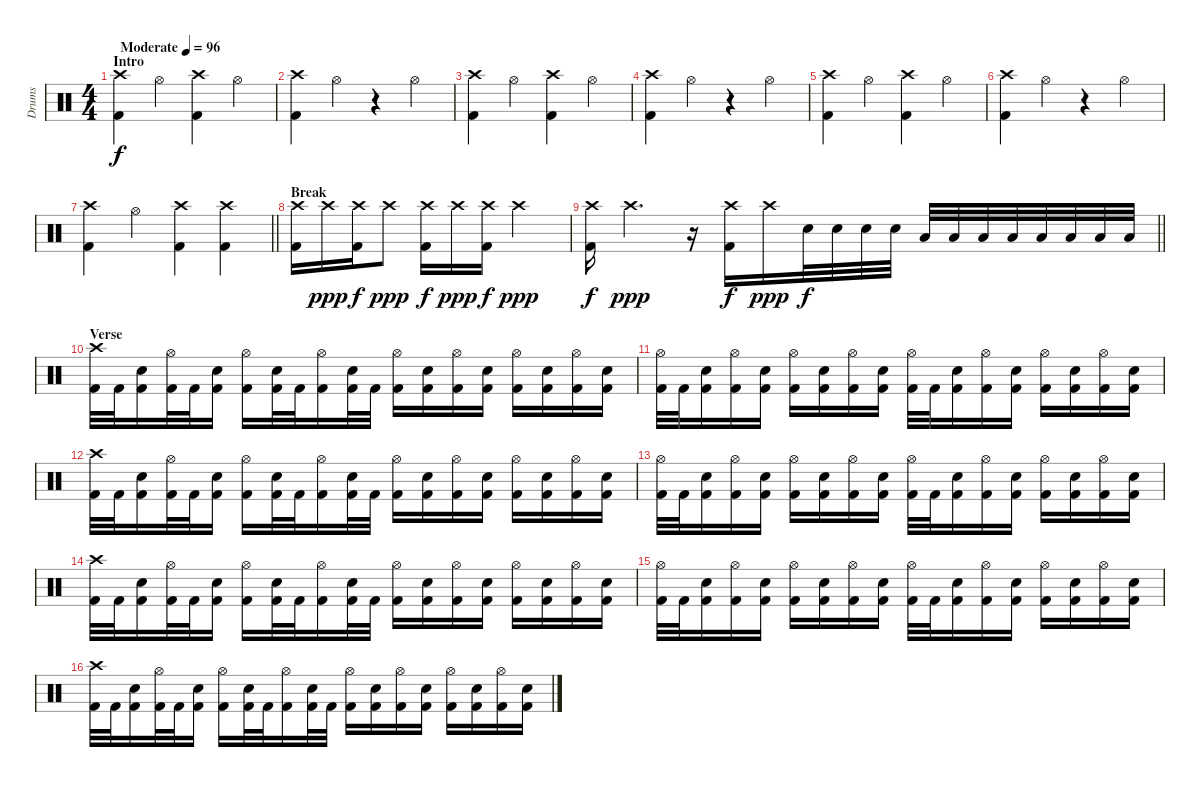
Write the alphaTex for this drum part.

\track ("Drums" "Drums") {instrument percussion}
\staff {score}
\articulation defaults
\ts (4 4)
\section ("" "Intro")
\tempo (96 "Moderate")
\clef neutral
\ks c
("Crash high (hit)" "Kick (hit) 2").4{dy f} "Hi-Hat (open)".4 ("Crash high (hit)" "Kick (hit) 2").4 "Hi-Hat (open)".4 |
("Crash high (hit)" "Kick (hit) 2").4 "Hi-Hat (open)".4 r.4 "Hi-Hat (open)".4 |
("Crash high (hit)" "Kick (hit) 2").4 "Hi-Hat (open)".4 ("Crash high (hit)" "Kick (hit) 2").4 "Hi-Hat (open)".4 |
("Crash high (hit)" "Kick (hit) 2").4 "Hi-Hat (open)".4 r.4 "Hi-Hat (open)".4 |
("Crash high (hit)" "Kick (hit) 2").4 "Hi-Hat (open)".4 ("Crash high (hit)" "Kick (hit) 2").4 "Hi-Hat (open)".4 |
("Crash high (hit)" "Kick (hit) 2").4 "Hi-Hat (open)".4 r.4 "Hi-Hat (open)".4 |
\barLineRight lightlight
("Crash high (hit)" "Kick (hit) 2").4 "Hi-Hat (open)".4 ("Crash high (hit)" "Kick (hit) 2").4 ("Crash high (hit)" "Kick (hit) 2").4 |
\section ("" "Break")
("Crash high (hit)" "Kick (hit) 2").16 "Crash high (hit)".16{dy ppp} ("Crash high (hit)" "Kick (hit) 2").16{dy f} "Crash high (hit)".8{dy ppp} ("Crash high (hit)" "Kick (hit) 2").16{dy f} "Crash high (hit)".16{dy ppp} ("Crash high (hit)" "Kick (hit) 2").16{dy f} "Crash high (hit)".2{dy ppp} |
\barLineRight lightlight
("Crash high (hit)" "Kick (hit) 2").16{dy f} "Crash high (hit)".4{d dy ppp} r.16 ("Crash high (hit)" "Kick (hit) 2").16{dy f} "Crash high (hit)".16{dy ppp} "Snare (hit) 2".32{dy f} "Snare (hit) 2".32 "Snare (hit) 2".32 "Snare (hit) 2".32 "Low Tom (hit)".32 "Low Tom (hit)".32 "Low Tom (hit)".32 "Low Tom (hit)".32 "Low Tom (hit)".32 "Low Tom (hit)".32 "Low Tom (hit)".32 "Low Tom (hit)".32 |
\section ("" "Verse")
("Crash high (hit)" "Kick (hit) 2").32 "Kick (hit) 2".32 ("Snare (hit) 2" "Kick (hit) 2").16 ("Hi-Hat (open)" "Kick (hit) 2").32 "Kick (hit) 2".32 ("Snare (hit) 2" "Kick (hit) 2").16 ("Hi-Hat (open)" "Kick (hit) 2").16 ("Snare (hit) 2" "Kick (hit) 2").32 "Kick (hit) 2".32 ("Hi-Hat (open)" "Kick (hit) 2").16 ("Snare (hit) 2" "Kick (hit) 2").32 "Kick (hit) 2".32 ("Hi-Hat (open)" "Kick (hit) 2").16 ("Snare (hit) 2" "Kick (hit) 2").16 ("Hi-Hat (open)" "Kick (hit) 2").16 ("Snare (hit) 2" "Kick (hit) 2").16 ("Hi-Hat (open)" "Kick (hit) 2").16 ("Snare (hit) 2" "Kick (hit) 2").16 ("Hi-Hat (open)" "Kick (hit) 2").16 ("Snare (hit) 2" "Kick (hit) 2").16 |
("Hi-Hat (open)" "Kick (hit) 2").32 "Kick (hit) 2".32 ("Snare (hit) 2" "Kick (hit) 2").16 ("Hi-Hat (open)" "Kick (hit) 2").16 ("Snare (hit) 2" "Kick (hit) 2").16 ("Hi-Hat (open)" "Kick (hit) 2").16 ("Snare (hit) 2" "Kick (hit) 2").16 ("Hi-Hat (open)" "Kick (hit) 2").16 ("Snare (hit) 2" "Kick (hit) 2").16 ("Hi-Hat (open)" "Kick (hit) 2").32 "Kick (hit) 2".32 ("Snare (hit) 2" "Kick (hit) 2").16 ("Hi-Hat (open)" "Kick (hit) 2").16 ("Snare (hit) 2" "Kick (hit) 2").16 ("Hi-Hat (open)" "Kick (hit) 2").16 ("Snare (hit) 2" "Kick (hit) 2").16 ("Hi-Hat (open)" "Kick (hit) 2").16 ("Snare (hit) 2" "Kick (hit) 2").16 |
("Crash high (hit)" "Kick (hit) 2").32 "Kick (hit) 2".32 ("Snare (hit) 2" "Kick (hit) 2").16 ("Hi-Hat (open)" "Kick (hit) 2").32 "Kick (hit) 2".32 ("Snare (hit) 2" "Kick (hit) 2").16 ("Hi-Hat (open)" "Kick (hit) 2").16 ("Snare (hit) 2" "Kick (hit) 2").32 "Kick (hit) 2".32 ("Hi-Hat (open)" "Kick (hit) 2").16 ("Snare (hit) 2" "Kick (hit) 2").32 "Kick (hit) 2".32 ("Hi-Hat (open)" "Kick (hit) 2").16 ("Snare (hit) 2" "Kick (hit) 2").16 ("Hi-Hat (open)" "Kick (hit) 2").16 ("Snare (hit) 2" "Kick (hit) 2").16 ("Hi-Hat (open)" "Kick (hit) 2").16 ("Snare (hit) 2" "Kick (hit) 2").16 ("Hi-Hat (open)" "Kick (hit) 2").16 ("Snare (hit) 2" "Kick (hit) 2").16 |
("Hi-Hat (open)" "Kick (hit) 2").32 "Kick (hit) 2".32 ("Snare (hit) 2" "Kick (hit) 2").16 ("Hi-Hat (open)" "Kick (hit) 2").16 ("Snare (hit) 2" "Kick (hit) 2").16 ("Hi-Hat (open)" "Kick (hit) 2").16 ("Snare (hit) 2" "Kick (hit) 2").16 ("Hi-Hat (open)" "Kick (hit) 2").16 ("Snare (hit) 2" "Kick (hit) 2").16 ("Hi-Hat (open)" "Kick (hit) 2").32 "Kick (hit) 2".32 ("Snare (hit) 2" "Kick (hit) 2").16 ("Hi-Hat (open)" "Kick (hit) 2").16 ("Snare (hit) 2" "Kick (hit) 2").16 ("Hi-Hat (open)" "Kick (hit) 2").16 ("Snare (hit) 2" "Kick (hit) 2").16 ("Hi-Hat (open)" "Kick (hit) 2").16 ("Snare (hit) 2" "Kick (hit) 2").16 |
("Crash high (hit)" "Kick (hit) 2").32 "Kick (hit) 2".32 ("Snare (hit) 2" "Kick (hit) 2").16 ("Hi-Hat (open)" "Kick (hit) 2").32 "Kick (hit) 2".32 ("Snare (hit) 2" "Kick (hit) 2").16 ("Hi-Hat (open)" "Kick (hit) 2").16 ("Snare (hit) 2" "Kick (hit) 2").32 "Kick (hit) 2".32 ("Hi-Hat (open)" "Kick (hit) 2").16 ("Snare (hit) 2" "Kick (hit) 2").32 "Kick (hit) 2".32 ("Hi-Hat (open)" "Kick (hit) 2").16 ("Snare (hit) 2" "Kick (hit) 2").16 ("Hi-Hat (open)" "Kick (hit) 2").16 ("Snare (hit) 2" "Kick (hit) 2").16 ("Hi-Hat (open)" "Kick (hit) 2").16 ("Snare (hit) 2" "Kick (hit) 2").16 ("Hi-Hat (open)" "Kick (hit) 2").16 ("Snare (hit) 2" "Kick (hit) 2").16 |
("Hi-Hat (open)" "Kick (hit) 2").32 "Kick (hit) 2".32 ("Snare (hit) 2" "Kick (hit) 2").16 ("Hi-Hat (open)" "Kick (hit) 2").16 ("Snare (hit) 2" "Kick (hit) 2").16 ("Hi-Hat (open)" "Kick (hit) 2").16 ("Snare (hit) 2" "Kick (hit) 2").16 ("Hi-Hat (open)" "Kick (hit) 2").16 ("Snare (hit) 2" "Kick (hit) 2").16 ("Hi-Hat (open)" "Kick (hit) 2").32 "Kick (hit) 2".32 ("Snare (hit) 2" "Kick (hit) 2").16 ("Hi-Hat (open)" "Kick (hit) 2").16 ("Snare (hit) 2" "Kick (hit) 2").16 ("Hi-Hat (open)" "Kick (hit) 2").16 ("Snare (hit) 2" "Kick (hit) 2").16 ("Hi-Hat (open)" "Kick (hit) 2").16 ("Snare (hit) 2" "Kick (hit) 2").16 |
("Crash high (hit)" "Kick (hit) 2").32 "Kick (hit) 2".32 ("Snare (hit) 2" "Kick (hit) 2").16 ("Hi-Hat (open)" "Kick (hit) 2").32 "Kick (hit) 2".32 ("Snare (hit) 2" "Kick (hit) 2").16 ("Hi-Hat (open)" "Kick (hit) 2").16 ("Snare (hit) 2" "Kick (hit) 2").32 "Kick (hit) 2".32 ("Hi-Hat (open)" "Kick (hit) 2").16 ("Snare (hit) 2" "Kick (hit) 2").32 "Kick (hit) 2".32 ("Hi-Hat (open)" "Kick (hit) 2").16 ("Snare (hit) 2" "Kick (hit) 2").16 ("Hi-Hat (open)" "Kick (hit) 2").16 ("Snare (hit) 2" "Kick (hit) 2").16 ("Hi-Hat (open)" "Kick (hit) 2").16 ("Snare (hit) 2" "Kick (hit) 2").16 ("Hi-Hat (open)" "Kick (hit) 2").16 ("Snare (hit) 2" "Kick (hit) 2").16
